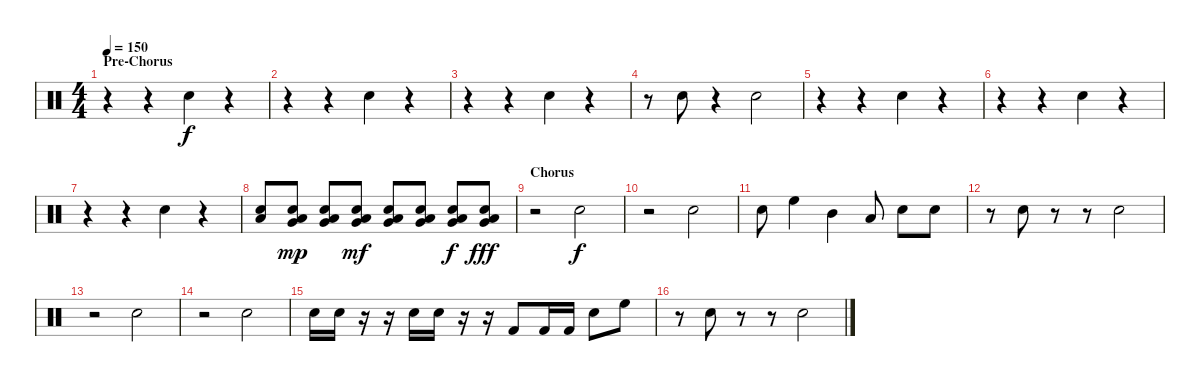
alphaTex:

\track "" {instrument percussion}
\staff {score}
\articulation defaults
\ts (4 4)
\section ("" "Pre-Chorus")
\tempo 150
\clef neutral
\ks c
r.4{dy f} r.4 "Electric Snare (hit)".4 r.4 |
r.4 r.4 "Electric Snare (hit)".4 r.4 |
r.4 r.4 "Electric Snare (hit)".4 r.4 |
r.8 "Electric Snare (hit)".8 r.4 "Electric Snare (hit)".2 |
r.4 r.4 "Electric Snare (hit)".4 r.4 |
r.4 r.4 "Electric Snare (hit)".4 r.4 |
r.4 r.4 "Electric Snare (hit)".4 r.4 |
("Low Tom (hit)" "Electric Snare (hit)").8 ("Very Low Tom (hit)" "Low Tom (hit)" "Electric Snare (hit)").8{dy mp} ("Very Low Tom (hit)" "Low Tom (hit)" "Electric Snare (hit)").8 ("Very Low Tom (hit)" "Low Tom (hit)" "Electric Snare (hit)").8{dy mf} ("Very Low Tom (hit)" "Low Tom (hit)" "Electric Snare (hit)").8 ("Very Low Tom (hit)" "Low Tom (hit)" "Electric Snare (hit)").8 ("Very Low Tom (hit)" "Low Tom (hit)" "Electric Snare (hit)").8{dy f} ("Very Low Tom (hit)" "Low Tom (hit)" "Electric Snare (hit)").8{dy fff} |
\section ("" "Chorus")
r.2 "Electric Snare (hit)".2{dy f} |
r.2 "Electric Snare (hit)".2 |
"Electric Snare (hit)".8 "High Floor Tom (hit)".4 "Mid Tom (hit)".4 "Low Tom (hit)".8 "Electric Snare (hit)".8 "Electric Snare (hit)".8 |
r.8 "Electric Snare (hit)".8 r.8 r.8 "Electric Snare (hit)".2 |
r.2 "Electric Snare (hit)".2 |
r.2 "Electric Snare (hit)".2 |
"Electric Snare (hit)".16 "Electric Snare (hit)".16 r.16 r.16 "Electric Snare (hit)".16 "Electric Snare (hit)".16 r.16 r.16 "Kick (hit) 2".8 "Kick (hit) 2".16 "Kick (hit) 2".16 "Electric Snare (hit)".8 "High Floor Tom (hit)".8 |
r.8 "Electric Snare (hit)".8 r.8 r.8 "Electric Snare (hit)".2
